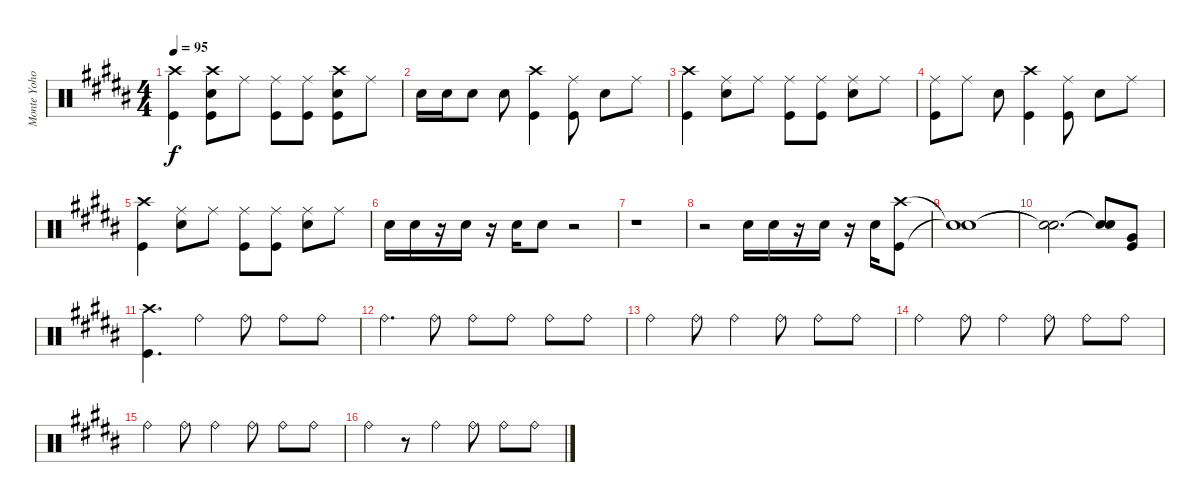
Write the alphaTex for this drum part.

\track ("Monte Yoho Drums" "Monte Yoho") {instrument percussion}
\staff {score}
\articulation defaults
\ts (4 4)
\tempo 95
\clef neutral
\ks g#minor
("Crash high (hit)" "Kick (hit)").4{dy f} ("Crash high (hit)" "Snare (hit) 2" "Kick (hit)").8 "Ride (middle)".8 ("Ride (middle)" "Kick (hit)").8 ("Ride (middle)" "Kick (hit)").8 ("Crash high (hit)" "Snare (hit) 2" "Kick (hit)").8 "Ride (middle)".8 |
"Snare (hit) 2".16 "Snare (hit) 2".16 "Snare (hit) 2".8 "Snare (hit) 2".8 ("Crash high (hit)" "Kick (hit)").4 ("Ride (middle)" "Kick (hit)").8 "Snare (hit) 2".8 "Ride (middle)".8 |
("Crash high (hit)" "Kick (hit)").4 ("Ride (middle)" "Snare (hit) 2").8 "Ride (middle)".8 ("Ride (middle)" "Kick (hit)").8 ("Ride (middle)" "Kick (hit)").8 ("Ride (middle)" "Snare (hit) 2").8 "Ride (middle)".8 |
("Ride (middle)" "Kick (hit)").8 "Ride (middle)".8 "Snare (hit) 2".8 ("Crash high (hit)" "Kick (hit)").4 ("Ride (middle)" "Kick (hit)").8 "Snare (hit) 2".8 "Ride (middle)".8 |
("Crash high (hit)" "Kick (hit)").4 ("Ride (middle)" "Snare (hit) 2").8 "Ride (middle)".8 ("Ride (middle)" "Kick (hit)").8 ("Ride (middle)" "Kick (hit)").8 ("Ride (middle)" "Snare (hit) 2").8 "Ride (middle)".8 |
"Snare (hit) 2".16 "Snare (hit) 2".16 r.16 "Snare (hit) 2".16 r.16 "Snare (hit) 2".16 "Snare (hit) 2".8 r.2 |
r.1 |
r.2 "Snare (hit) 2".16 "Snare (hit) 2".16 r.16 "Snare (hit) 2".16 r.16 "Snare (hit) 2".16 ("Crash high (hit)" "Kick (hit)").8 |
("Snare (hit)"{t} "Snare (hit)"{t}).1 |
("Snare (hit)"{t} "Snare (hit)"{t}).2{d} ("Snare (hit)"{t} "Snare (hit)"{t}).8 ("Very Low Tom (hit)" "Kick (hit)").8 |
("Crash high (hit)" "Kick (hit)").4{d} "Ride (bell)".4{volume 10} "Ride (bell)".8 "Ride (bell)".8 "Ride (bell)".8 |
"Ride (bell)".4{d} "Ride (bell)".8 "Ride (bell)".8 "Ride (bell)".8 "Ride (bell)".8 "Ride (bell)".8 |
"Ride (bell)".4 "Ride (bell)".8 "Ride (bell)".4 "Ride (bell)".8 "Ride (bell)".8 "Ride (bell)".8 |
"Ride (bell)".4 "Ride (bell)".8 "Ride (bell)".4 "Ride (bell)".8 "Ride (bell)".8 "Ride (bell)".8 |
"Ride (bell)".4 "Ride (bell)".8 "Ride (bell)".4 "Ride (bell)".8 "Ride (bell)".8 "Ride (bell)".8 |
"Ride (bell)".4 r.8 "Ride (bell)".4 "Ride (bell)".8 "Ride (bell)".8 "Ride (bell)".8
